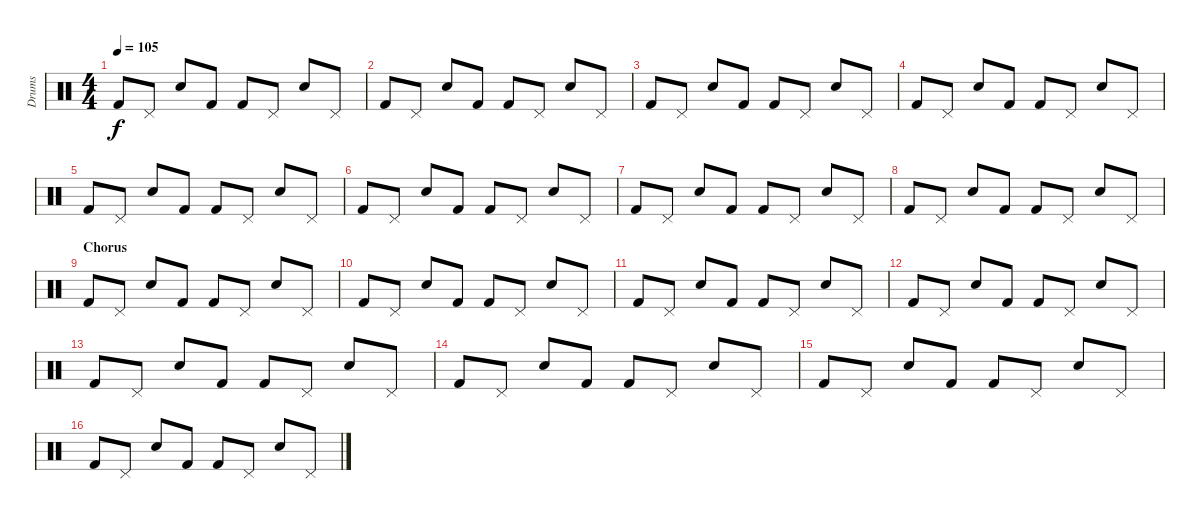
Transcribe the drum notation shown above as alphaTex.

\track ("Drums" "Drums") {instrument percussion}
\staff {score}
\articulation defaults
\ts (4 4)
\tempo 105
\clef neutral
\ks c "Kick (hit) 2".8{dy f} "Pedal Hi-Hat (hit)".8 "Electric Snare (hit)".8 "Kick (hit) 2".8 "Kick (hit) 2".8 "Pedal Hi-Hat (hit)".8 "Electric Snare (hit)".8 "Pedal Hi-Hat (hit)".8
|
"Kick (hit) 2".8 "Pedal Hi-Hat (hit)".8 "Electric Snare (hit)".8 "Kick (hit) 2".8 "Kick (hit) 2".8 "Pedal Hi-Hat (hit)".8 "Electric Snare (hit)".8 "Pedal Hi-Hat (hit)".8 |
"Kick (hit) 2".8 "Pedal Hi-Hat (hit)".8 "Electric Snare (hit)".8 "Kick (hit) 2".8 "Kick (hit) 2".8 "Pedal Hi-Hat (hit)".8 "Electric Snare (hit)".8 "Pedal Hi-Hat (hit)".8 |
"Kick (hit) 2".8 "Pedal Hi-Hat (hit)".8 "Electric Snare (hit)".8 "Kick (hit) 2".8 "Kick (hit) 2".8 "Pedal Hi-Hat (hit)".8 "Electric Snare (hit)".8 "Pedal Hi-Hat (hit)".8 |
"Kick (hit) 2".8 "Pedal Hi-Hat (hit)".8 "Electric Snare (hit)".8 "Kick (hit) 2".8 "Kick (hit) 2".8 "Pedal Hi-Hat (hit)".8 "Electric Snare (hit)".8 "Pedal Hi-Hat (hit)".8 |
"Kick (hit) 2".8 "Pedal Hi-Hat (hit)".8 "Electric Snare (hit)".8 "Kick (hit) 2".8 "Kick (hit) 2".8 "Pedal Hi-Hat (hit)".8 "Electric Snare (hit)".8 "Pedal Hi-Hat (hit)".8 |
"Kick (hit) 2".8 "Pedal Hi-Hat (hit)".8 "Electric Snare (hit)".8 "Kick (hit) 2".8 "Kick (hit) 2".8 "Pedal Hi-Hat (hit)".8 "Electric Snare (hit)".8 "Pedal Hi-Hat (hit)".8 |
"Kick (hit) 2".8 "Pedal Hi-Hat (hit)".8 "Electric Snare (hit)".8 "Kick (hit) 2".8 "Kick (hit) 2".8 "Pedal Hi-Hat (hit)".8 "Electric Snare (hit)".8 "Pedal Hi-Hat (hit)".8 |
\section ("" "Chorus")
"Kick (hit) 2".8 "Pedal Hi-Hat (hit)".8 "Electric Snare (hit)".8 "Kick (hit) 2".8 "Kick (hit) 2".8 "Pedal Hi-Hat (hit)".8 "Electric Snare (hit)".8 "Pedal Hi-Hat (hit)".8 |
"Kick (hit) 2".8 "Pedal Hi-Hat (hit)".8 "Electric Snare (hit)".8 "Kick (hit) 2".8 "Kick (hit) 2".8 "Pedal Hi-Hat (hit)".8 "Electric Snare (hit)".8 "Pedal Hi-Hat (hit)".8 |
"Kick (hit) 2".8 "Pedal Hi-Hat (hit)".8 "Electric Snare (hit)".8 "Kick (hit) 2".8 "Kick (hit) 2".8 "Pedal Hi-Hat (hit)".8 "Electric Snare (hit)".8 "Pedal Hi-Hat (hit)".8 |
"Kick (hit) 2".8 "Pedal Hi-Hat (hit)".8 "Electric Snare (hit)".8 "Kick (hit) 2".8 "Kick (hit) 2".8 "Pedal Hi-Hat (hit)".8 "Electric Snare (hit)".8 "Pedal Hi-Hat (hit)".8 |
"Kick (hit) 2".8 "Pedal Hi-Hat (hit)".8 "Electric Snare (hit)".8 "Kick (hit) 2".8 "Kick (hit) 2".8 "Pedal Hi-Hat (hit)".8 "Electric Snare (hit)".8 "Pedal Hi-Hat (hit)".8 |
"Kick (hit) 2".8 "Pedal Hi-Hat (hit)".8 "Electric Snare (hit)".8 "Kick (hit) 2".8 "Kick (hit) 2".8 "Pedal Hi-Hat (hit)".8 "Electric Snare (hit)".8 "Pedal Hi-Hat (hit)".8 |
"Kick (hit) 2".8 "Pedal Hi-Hat (hit)".8 "Electric Snare (hit)".8 "Kick (hit) 2".8 "Kick (hit) 2".8 "Pedal Hi-Hat (hit)".8 "Electric Snare (hit)".8 "Pedal Hi-Hat (hit)".8 |
"Kick (hit) 2".8 "Pedal Hi-Hat (hit)".8 "Electric Snare (hit)".8 "Kick (hit) 2".8 "Kick (hit) 2".8 "Pedal Hi-Hat (hit)".8 "Electric Snare (hit)".8 "Pedal Hi-Hat (hit)".8
